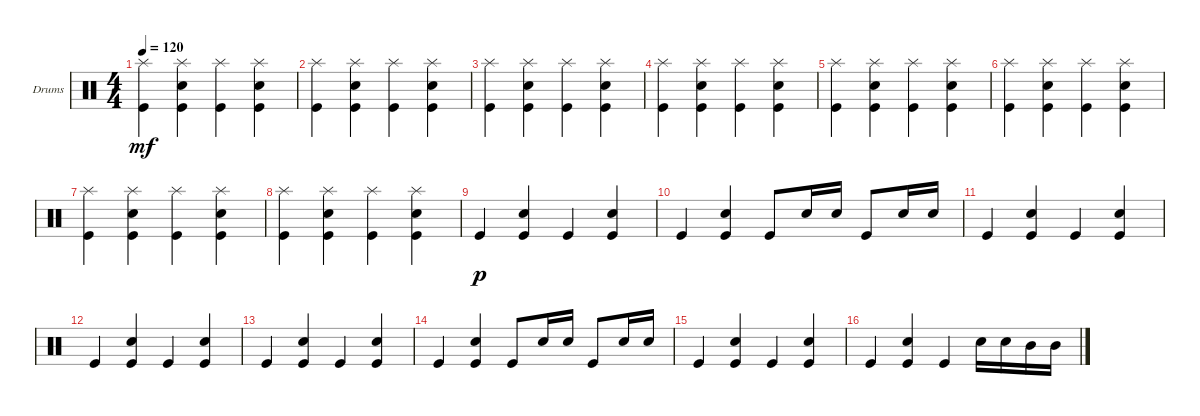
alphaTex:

\bracketExtendMode groupsimilarinstruments
\firstSystemTrackNameOrientation horizontal
\otherSystemsTrackNameOrientation horizontal
\track ("Drumkit" "Drums") {instrument percussion}
\staff {score}
\articulation defaults
\ts (4 4)
\tempo 120
\clef neutral
\ks c
("Splash (hit)" "Kick (hit)").4{dy mf} ("Splash (hit)" "Kick (hit)" "Snare (hit) 2").4 ("Splash (hit)" "Kick (hit)").4 ("Splash (hit)" "Kick (hit)" "Snare (hit) 2").4 |
("Splash (hit)" "Kick (hit)").4 ("Splash (hit)" "Kick (hit)" "Snare (hit) 2").4 ("Splash (hit)" "Kick (hit)").4 ("Splash (hit)" "Kick (hit)" "Snare (hit) 2").4 |
("Splash (hit)" "Kick (hit)").4 ("Splash (hit)" "Kick (hit)" "Snare (hit) 2").4 ("Splash (hit)" "Kick (hit)").4 ("Splash (hit)" "Kick (hit)" "Snare (hit) 2").4 |
("Splash (hit)" "Kick (hit)").4 ("Splash (hit)" "Kick (hit)" "Snare (hit) 2").4 ("Splash (hit)" "Kick (hit)").4 ("Splash (hit)" "Kick (hit)" "Snare (hit) 2").4 |
("Splash (hit)" "Kick (hit)").4 ("Splash (hit)" "Kick (hit)" "Snare (hit) 2").4 ("Splash (hit)" "Kick (hit)").4 ("Splash (hit)" "Kick (hit)" "Snare (hit) 2").4 |
("Splash (hit)" "Kick (hit)").4 ("Splash (hit)" "Kick (hit)" "Snare (hit) 2").4 ("Splash (hit)" "Kick (hit)").4 ("Splash (hit)" "Kick (hit)" "Snare (hit) 2").4 |
("Splash (hit)" "Kick (hit)").4 ("Splash (hit)" "Kick (hit)" "Snare (hit) 2").4 ("Splash (hit)" "Kick (hit)").4 ("Splash (hit)" "Kick (hit)" "Snare (hit) 2").4 |
("Splash (hit)" "Kick (hit)").4 ("Splash (hit)" "Kick (hit)" "Snare (hit) 2").4 ("Splash (hit)" "Kick (hit)").4 ("Splash (hit)" "Kick (hit)" "Snare (hit) 2").4 |
"Kick (hit)".4{dy p} ("Snare (hit) 2" "Kick (hit)").4 "Kick (hit)".4 ("Snare (hit) 2" "Kick (hit)").4 |
"Kick (hit)".4 ("Snare (hit) 2" "Kick (hit)").4 "Kick (hit)".8 "Snare (hit) 2".16 "Snare (hit) 2".16 "Kick (hit)".8 "Snare (hit) 2".16 "Snare (hit) 2".16 |
"Kick (hit)".4 ("Snare (hit) 2" "Kick (hit)").4 "Kick (hit)".4 ("Snare (hit) 2" "Kick (hit)").4 |
"Kick (hit)".4 ("Snare (hit) 2" "Kick (hit)").4 "Kick (hit)".4 ("Snare (hit) 2" "Kick (hit)").4 |
"Kick (hit)".4 ("Snare (hit) 2" "Kick (hit)").4 "Kick (hit)".4 ("Snare (hit) 2" "Kick (hit)").4 |
"Kick (hit)".4 ("Snare (hit) 2" "Kick (hit)").4 "Kick (hit)".8 "Snare (hit) 2".16 "Snare (hit) 2".16 "Kick (hit)".8 "Snare (hit) 2".16 "Snare (hit) 2".16 |
"Kick (hit)".4 ("Snare (hit) 2" "Kick (hit)").4 "Kick (hit)".4 ("Snare (hit) 2" "Kick (hit)").4 |
"Kick (hit)".4 ("Snare (hit) 2" "Kick (hit)").4 "Kick (hit)".4 "Snare (hit) 2".16 "Snare (hit) 2".16 "Mid Tom (hit)".16 "Mid Tom (hit)".16
